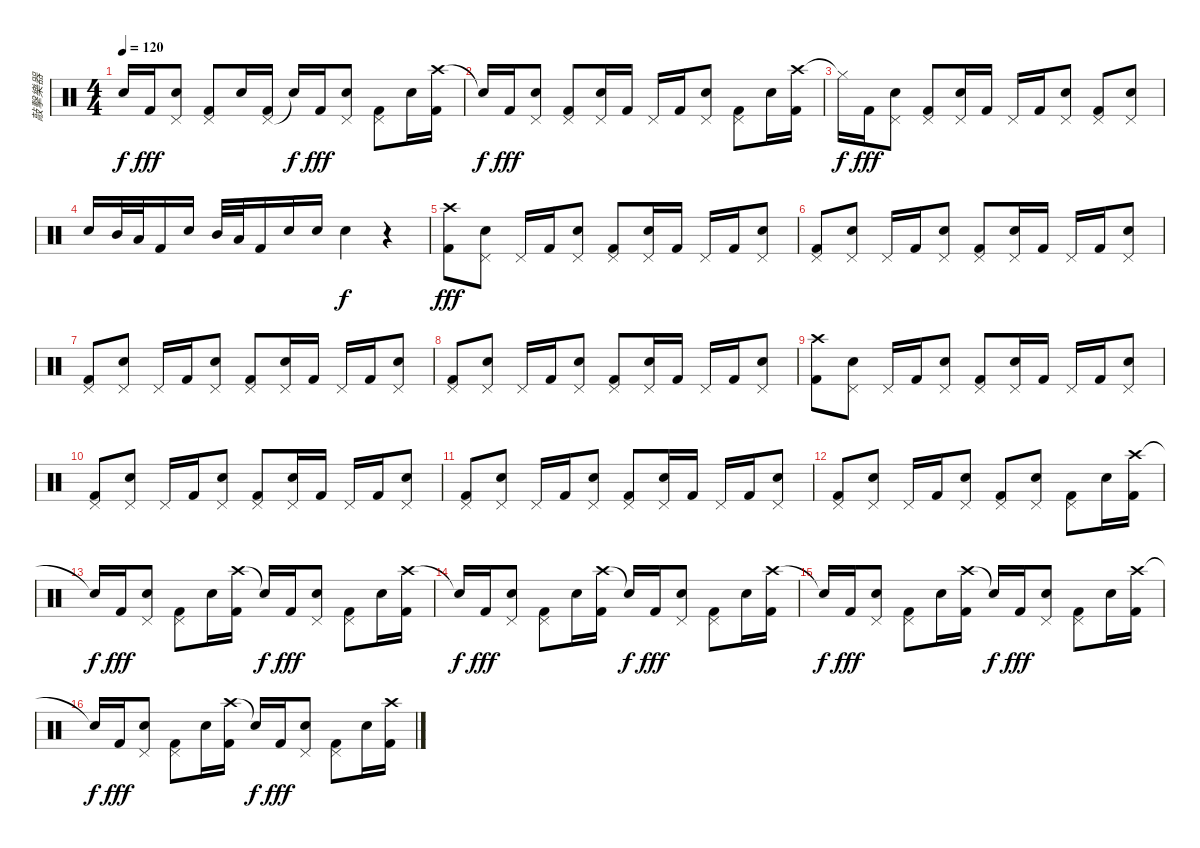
\track ("敲擊樂器" "敲擊樂器") {instrument percussion}
\staff {score}
\articulation defaults
\ts (4 4)
\tempo 120
\clef neutral
\ks c "Snare (hit)"{t}.16{dy f} "Kick (hit) 2".16{dy fff}
("Pedal Hi-Hat (hit)" "Snare (hit) 2").8 ("Pedal Hi-Hat (hit)" "Kick (hit) 2").8 "Snare (hit) 2".16 ("Pedal Hi-Hat (hit)" "Kick (hit) 2").16 "Snare (hit)"{t}.16{dy f} "Kick (hit) 2".16{dy fff} ("Pedal Hi-Hat (hit)" "Snare (hit) 2").8 ("Pedal Hi-Hat (hit)" "Kick (hit) 2").8 "Snare (hit) 2".16 ("Crash high (hit)" "Kick (hit) 2").16 |
"Snare (hit)"{t}.16{dy f} "Kick (hit) 2".16{dy fff} ("Pedal Hi-Hat (hit)" "Snare (hit) 2").8 ("Pedal Hi-Hat (hit)" "Kick (hit) 2").8 ("Pedal Hi-Hat (hit)" "Snare (hit) 2").16 "Kick (hit) 2".16 "Pedal Hi-Hat (hit)".16 "Kick (hit) 2".16 ("Pedal Hi-Hat (hit)" "Snare (hit) 2").8 ("Pedal Hi-Hat (hit)" "Kick (hit) 2").8 "Snare (hit) 2".16 ("Crash high (hit)" "Kick (hit) 2").16 |
"Hi-Hat (closed)"{t}.16{dy f} "Kick (hit) 2".16{dy fff} ("Pedal Hi-Hat (hit)" "Snare (hit) 2").8 ("Pedal Hi-Hat (hit)" "Kick (hit) 2").8 ("Pedal Hi-Hat (hit)" "Snare (hit) 2").16 "Kick (hit) 2".16 "Pedal Hi-Hat (hit)".16 "Kick (hit) 2".16 ("Pedal Hi-Hat (hit)" "Snare (hit) 2").8 ("Pedal Hi-Hat (hit)" "Kick (hit) 2").8 ("Pedal Hi-Hat (hit)" "Snare (hit) 2").8 |
"Snare (hit) 2".16 "Mid Tom (hit)".32 "Low Tom (hit)".32 "Kick (hit) 2".16 "Snare (hit) 2".16 "Mid Tom (hit)".32 "Low Tom (hit)".32 "Kick (hit) 2".16 "Snare (hit) 2".16 "Snare (hit) 2".16 "Snare (hit) 2".4{dy f} r.4 |
("Crash high (hit)" "Kick (hit) 2").8{dy fff} ("Pedal Hi-Hat (hit)" "Snare (hit) 2").8 "Pedal Hi-Hat (hit)".16 "Kick (hit) 2".16 ("Pedal Hi-Hat (hit)" "Snare (hit) 2").8 ("Pedal Hi-Hat (hit)" "Kick (hit) 2").8 ("Pedal Hi-Hat (hit)" "Snare (hit) 2").16 "Kick (hit) 2".16 "Pedal Hi-Hat (hit)".16 "Kick (hit) 2".16 ("Pedal Hi-Hat (hit)" "Snare (hit) 2").8 |
("Pedal Hi-Hat (hit)" "Kick (hit) 2").8 ("Pedal Hi-Hat (hit)" "Snare (hit) 2").8 "Pedal Hi-Hat (hit)".16 "Kick (hit) 2".16 ("Pedal Hi-Hat (hit)" "Snare (hit) 2").8 ("Pedal Hi-Hat (hit)" "Kick (hit) 2").8 ("Pedal Hi-Hat (hit)" "Snare (hit) 2").16 "Kick (hit) 2".16 "Pedal Hi-Hat (hit)".16 "Kick (hit) 2".16 ("Pedal Hi-Hat (hit)" "Snare (hit) 2").8 |
("Pedal Hi-Hat (hit)" "Kick (hit) 2").8 ("Pedal Hi-Hat (hit)" "Snare (hit) 2").8 "Pedal Hi-Hat (hit)".16 "Kick (hit) 2".16 ("Pedal Hi-Hat (hit)" "Snare (hit) 2").8 ("Pedal Hi-Hat (hit)" "Kick (hit) 2").8 ("Pedal Hi-Hat (hit)" "Snare (hit) 2").16 "Kick (hit) 2".16 "Pedal Hi-Hat (hit)".16 "Kick (hit) 2".16 ("Pedal Hi-Hat (hit)" "Snare (hit) 2").8 |
("Pedal Hi-Hat (hit)" "Kick (hit) 2").8 ("Pedal Hi-Hat (hit)" "Snare (hit) 2").8 "Pedal Hi-Hat (hit)".16 "Kick (hit) 2".16 ("Pedal Hi-Hat (hit)" "Snare (hit) 2").8 ("Pedal Hi-Hat (hit)" "Kick (hit) 2").8 ("Pedal Hi-Hat (hit)" "Snare (hit) 2").16 "Kick (hit) 2".16 "Pedal Hi-Hat (hit)".16 "Kick (hit) 2".16 ("Pedal Hi-Hat (hit)" "Snare (hit) 2").8 |
("Crash high (hit)" "Kick (hit) 2").8 ("Pedal Hi-Hat (hit)" "Snare (hit) 2").8 "Pedal Hi-Hat (hit)".16 "Kick (hit) 2".16 ("Pedal Hi-Hat (hit)" "Snare (hit) 2").8 ("Pedal Hi-Hat (hit)" "Kick (hit) 2").8 ("Pedal Hi-Hat (hit)" "Snare (hit) 2").16 "Kick (hit) 2".16 "Pedal Hi-Hat (hit)".16 "Kick (hit) 2".16 ("Pedal Hi-Hat (hit)" "Snare (hit) 2").8 |
("Pedal Hi-Hat (hit)" "Kick (hit) 2").8 ("Pedal Hi-Hat (hit)" "Snare (hit) 2").8 "Pedal Hi-Hat (hit)".16 "Kick (hit) 2".16 ("Pedal Hi-Hat (hit)" "Snare (hit) 2").8 ("Pedal Hi-Hat (hit)" "Kick (hit) 2").8 ("Pedal Hi-Hat (hit)" "Snare (hit) 2").16 "Kick (hit) 2".16 "Pedal Hi-Hat (hit)".16 "Kick (hit) 2".16 ("Pedal Hi-Hat (hit)" "Snare (hit) 2").8 |
("Pedal Hi-Hat (hit)" "Kick (hit) 2").8 ("Pedal Hi-Hat (hit)" "Snare (hit) 2").8 "Pedal Hi-Hat (hit)".16 "Kick (hit) 2".16 ("Pedal Hi-Hat (hit)" "Snare (hit) 2").8 ("Pedal Hi-Hat (hit)" "Kick (hit) 2").8 ("Pedal Hi-Hat (hit)" "Snare (hit) 2").16 "Kick (hit) 2".16 "Pedal Hi-Hat (hit)".16 "Kick (hit) 2".16 ("Pedal Hi-Hat (hit)" "Snare (hit) 2").8 |
("Pedal Hi-Hat (hit)" "Kick (hit) 2").8 ("Pedal Hi-Hat (hit)" "Snare (hit) 2").8 "Pedal Hi-Hat (hit)".16 "Kick (hit) 2".16 ("Pedal Hi-Hat (hit)" "Snare (hit) 2").8 ("Pedal Hi-Hat (hit)" "Kick (hit) 2").8 ("Pedal Hi-Hat (hit)" "Snare (hit) 2").8 ("Pedal Hi-Hat (hit)" "Kick (hit) 2").8 "Snare (hit) 2".16 ("Crash high (hit)" "Kick (hit) 2").16 |
"Snare (hit)"{t}.16{dy f} "Kick (hit) 2".16{dy fff} ("Pedal Hi-Hat (hit)" "Snare (hit) 2").8 ("Pedal Hi-Hat (hit)" "Kick (hit) 2").8 "Snare (hit) 2".16 ("Crash high (hit)" "Kick (hit) 2").16 "Snare (hit)"{t}.16{dy f} "Kick (hit) 2".16{dy fff} ("Pedal Hi-Hat (hit)" "Snare (hit) 2").8 ("Pedal Hi-Hat (hit)" "Kick (hit) 2").8 "Snare (hit) 2".16 ("Crash high (hit)" "Kick (hit) 2").16 |
"Snare (hit)"{t}.16{dy f} "Kick (hit) 2".16{dy fff} ("Pedal Hi-Hat (hit)" "Snare (hit) 2").8 ("Pedal Hi-Hat (hit)" "Kick (hit) 2").8 "Snare (hit) 2".16 ("Crash high (hit)" "Kick (hit) 2").16 "Snare (hit)"{t}.16{dy f} "Kick (hit) 2".16{dy fff} ("Pedal Hi-Hat (hit)" "Snare (hit) 2").8 ("Pedal Hi-Hat (hit)" "Kick (hit) 2").8 "Snare (hit) 2".16 ("Crash high (hit)" "Kick (hit) 2").16 |
"Snare (hit)"{t}.16{dy f} "Kick (hit) 2".16{dy fff} ("Pedal Hi-Hat (hit)" "Snare (hit) 2").8 ("Pedal Hi-Hat (hit)" "Kick (hit) 2").8 "Snare (hit) 2".16 ("Crash high (hit)" "Kick (hit) 2").16 "Snare (hit)"{t}.16{dy f} "Kick (hit) 2".16{dy fff} ("Pedal Hi-Hat (hit)" "Snare (hit) 2").8 ("Pedal Hi-Hat (hit)" "Kick (hit) 2").8 "Snare (hit) 2".16 ("Crash high (hit)" "Kick (hit) 2").16 |
"Snare (hit)"{t}.16{dy f} "Kick (hit) 2".16{dy fff} ("Pedal Hi-Hat (hit)" "Snare (hit) 2").8 ("Pedal Hi-Hat (hit)" "Kick (hit) 2").8 "Snare (hit) 2".16 ("Crash high (hit)" "Kick (hit) 2").16 "Snare (hit)"{t}.16{dy f} "Kick (hit) 2".16{dy fff} ("Pedal Hi-Hat (hit)" "Snare (hit) 2").8 ("Pedal Hi-Hat (hit)" "Kick (hit) 2").8 "Snare (hit) 2".16 ("Crash high (hit)" "Kick (hit) 2").16
